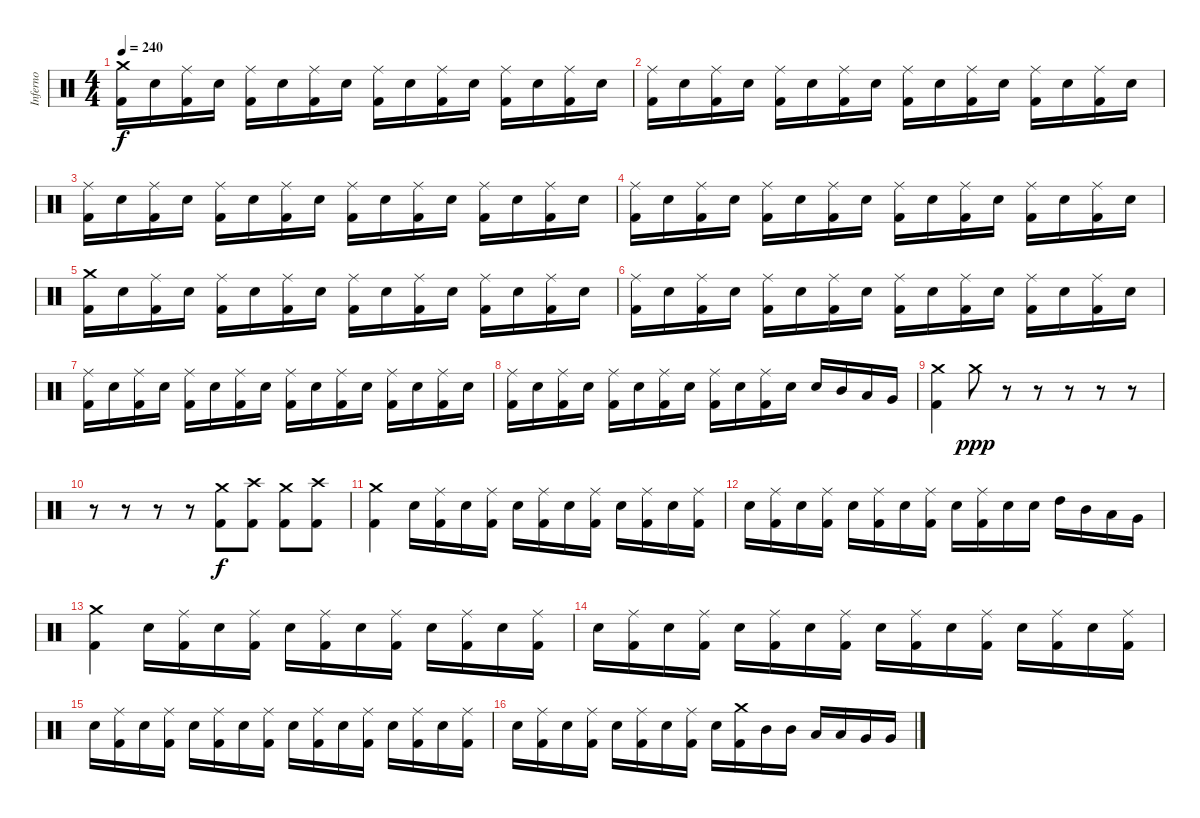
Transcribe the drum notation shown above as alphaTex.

\track ("Inferno" "Inferno") {instrument percussion}
\staff {score}
\articulation defaults
\ts (4 4)
\tempo 240
\clef neutral
\ks c
("Crash medium (hit)" "Kick (hit) 2").16{dy f} "Snare (hit) 2".16 ("Ride (middle)" "Kick (hit) 2").16 "Snare (hit) 2".16 ("Ride (middle)" "Kick (hit) 2").16 "Snare (hit) 2".16 ("Ride (middle)" "Kick (hit) 2").16 "Snare (hit) 2".16 ("Ride (middle)" "Kick (hit) 2").16 "Snare (hit) 2".16 ("Ride (middle)" "Kick (hit) 2").16 "Snare (hit) 2".16 ("Ride (middle)" "Kick (hit) 2").16 "Snare (hit) 2".16 ("Ride (middle)" "Kick (hit) 2").16 "Snare (hit) 2".16 |
("Ride (middle)" "Kick (hit) 2").16 "Snare (hit) 2".16 ("Ride (middle)" "Kick (hit) 2").16 "Snare (hit) 2".16 ("Ride (middle)" "Kick (hit) 2").16 "Snare (hit) 2".16 ("Ride (middle)" "Kick (hit) 2").16 "Snare (hit) 2".16 ("Ride (middle)" "Kick (hit) 2").16 "Snare (hit) 2".16 ("Ride (middle)" "Kick (hit) 2").16 "Snare (hit) 2".16 ("Ride (middle)" "Kick (hit) 2").16 "Snare (hit) 2".16 ("Ride (middle)" "Kick (hit) 2").16 "Snare (hit) 2".16 |
("Ride (middle)" "Kick (hit) 2").16 "Snare (hit) 2".16 ("Ride (middle)" "Kick (hit) 2").16 "Snare (hit) 2".16 ("Ride (middle)" "Kick (hit) 2").16 "Snare (hit) 2".16 ("Ride (middle)" "Kick (hit) 2").16 "Snare (hit) 2".16 ("Ride (middle)" "Kick (hit) 2").16 "Snare (hit) 2".16 ("Ride (middle)" "Kick (hit) 2").16 "Snare (hit) 2".16 ("Ride (middle)" "Kick (hit) 2").16 "Snare (hit) 2".16 ("Ride (middle)" "Kick (hit) 2").16 "Snare (hit) 2".16 |
("Ride (middle)" "Kick (hit) 2").16 "Snare (hit) 2".16 ("Ride (middle)" "Kick (hit) 2").16 "Snare (hit) 2".16 ("Ride (middle)" "Kick (hit) 2").16 "Snare (hit) 2".16 ("Ride (middle)" "Kick (hit) 2").16 "Snare (hit) 2".16 ("Ride (middle)" "Kick (hit) 2").16 "Snare (hit) 2".16 ("Ride (middle)" "Kick (hit) 2").16 "Snare (hit) 2".16 ("Ride (middle)" "Kick (hit) 2").16 "Snare (hit) 2".16 ("Ride (middle)" "Kick (hit) 2").16 "Snare (hit) 2".16 |
("Crash medium (hit)" "Kick (hit) 2").16 "Snare (hit) 2".16 ("Ride (middle)" "Kick (hit) 2").16 "Snare (hit) 2".16 ("Ride (middle)" "Kick (hit) 2").16 "Snare (hit) 2".16 ("Ride (middle)" "Kick (hit) 2").16 "Snare (hit) 2".16 ("Ride (middle)" "Kick (hit) 2").16 "Snare (hit) 2".16 ("Ride (middle)" "Kick (hit) 2").16 "Snare (hit) 2".16 ("Ride (middle)" "Kick (hit) 2").16 "Snare (hit) 2".16 ("Ride (middle)" "Kick (hit) 2").16 "Snare (hit) 2".16 |
("Ride (middle)" "Kick (hit) 2").16 "Snare (hit) 2".16 ("Ride (middle)" "Kick (hit) 2").16 "Snare (hit) 2".16 ("Ride (middle)" "Kick (hit) 2").16 "Snare (hit) 2".16 ("Ride (middle)" "Kick (hit) 2").16 "Snare (hit) 2".16 ("Ride (middle)" "Kick (hit) 2").16 "Snare (hit) 2".16 ("Ride (middle)" "Kick (hit) 2").16 "Snare (hit) 2".16 ("Ride (middle)" "Kick (hit) 2").16 "Snare (hit) 2".16 ("Ride (middle)" "Kick (hit) 2").16 "Snare (hit) 2".16 |
("Ride (middle)" "Kick (hit) 2").16 "Snare (hit) 2".16 ("Ride (middle)" "Kick (hit) 2").16 "Snare (hit) 2".16 ("Ride (middle)" "Kick (hit) 2").16 "Snare (hit) 2".16 ("Ride (middle)" "Kick (hit) 2").16 "Snare (hit) 2".16 ("Ride (middle)" "Kick (hit) 2").16 "Snare (hit) 2".16 ("Ride (middle)" "Kick (hit) 2").16 "Snare (hit) 2".16 ("Ride (middle)" "Kick (hit) 2").16 "Snare (hit) 2".16 ("Ride (middle)" "Kick (hit) 2").16 "Snare (hit) 2".16 |
("Ride (middle)" "Kick (hit) 2").16 "Snare (hit) 2".16 ("Ride (middle)" "Kick (hit) 2").16 "Snare (hit) 2".16 ("Ride (middle)" "Kick (hit) 2").16 "Snare (hit) 2".16 ("Ride (middle)" "Kick (hit) 2").16 "Snare (hit) 2".16 ("Ride (middle)" "Kick (hit) 2").16 "Snare (hit) 2".16 ("Ride (middle)" "Kick (hit) 2").16 "Snare (hit) 2".16 "Snare (hit) 2".16 "Mid Tom (hit)".16 "Low Tom (hit)".16 "Very Low Tom (hit)".16 |
("Crash medium (hit)" "Kick (hit) 2").4 "Crash medium (hit)".8{dy ppp} r.8 r.8 r.8 r.8 r.8 |
r.8 r.8 r.8 r.8 ("Crash medium (hit)" "Kick (hit) 2").8{dy f} ("Crash high (hit)" "Kick (hit) 2").8 ("Crash medium (hit)" "Kick (hit) 2").8 ("Crash high (hit)" "Kick (hit) 2").8 |
("Crash medium (hit)" "Kick (hit) 2").4 "Snare (hit) 2".16 ("Ride (middle)" "Kick (hit) 2").16 "Snare (hit) 2".16 ("Ride (middle)" "Kick (hit) 2").16 "Snare (hit) 2".16 ("Ride (middle)" "Kick (hit) 2").16 "Snare (hit) 2".16 ("Ride (middle)" "Kick (hit) 2").16 "Snare (hit) 2".16 ("Ride (middle)" "Kick (hit) 2").16 "Snare (hit) 2".16 ("Ride (middle)" "Kick (hit) 2").16 |
"Snare (hit) 2".16 ("Ride (middle)" "Kick (hit) 2").16 "Snare (hit) 2".16 ("Ride (middle)" "Kick (hit) 2").16 "Snare (hit) 2".16 ("Ride (middle)" "Kick (hit) 2").16 "Snare (hit) 2".16 ("Ride (middle)" "Kick (hit) 2").16 "Snare (hit) 2".16 ("Ride (middle)" "Kick (hit) 2").16 "Snare (hit) 2".16 "Snare (hit) 2".16 "High Tom (hit)".16 "Mid Tom (hit)".16 "Low Tom (hit)".16 "Very Low Tom (hit)".16 |
("Crash medium (hit)" "Kick (hit) 2").4 "Snare (hit) 2".16 ("Ride (middle)" "Kick (hit) 2").16 "Snare (hit) 2".16 ("Ride (middle)" "Kick (hit) 2").16 "Snare (hit) 2".16 ("Ride (middle)" "Kick (hit) 2").16 "Snare (hit) 2".16 ("Ride (middle)" "Kick (hit) 2").16 "Snare (hit) 2".16 ("Ride (middle)" "Kick (hit) 2").16 "Snare (hit) 2".16 ("Ride (middle)" "Kick (hit) 2").16 |
"Snare (hit) 2".16 ("Ride (middle)" "Kick (hit) 2").16 "Snare (hit) 2".16 ("Ride (middle)" "Kick (hit) 2").16 "Snare (hit) 2".16 ("Ride (middle)" "Kick (hit) 2").16 "Snare (hit) 2".16 ("Ride (middle)" "Kick (hit) 2").16 "Snare (hit) 2".16 ("Ride (middle)" "Kick (hit) 2").16 "Snare (hit) 2".16 ("Ride (middle)" "Kick (hit) 2").16 "Snare (hit) 2".16 ("Ride (middle)" "Kick (hit) 2").16 "Snare (hit) 2".16 ("Ride (middle)" "Kick (hit) 2").16 |
"Snare (hit) 2".16 ("Ride (middle)" "Kick (hit) 2").16 "Snare (hit) 2".16 ("Ride (middle)" "Kick (hit) 2").16 "Snare (hit) 2".16 ("Ride (middle)" "Kick (hit) 2").16 "Snare (hit) 2".16 ("Ride (middle)" "Kick (hit) 2").16 "Snare (hit) 2".16 ("Ride (middle)" "Kick (hit) 2").16 "Snare (hit) 2".16 ("Ride (middle)" "Kick (hit) 2").16 "Snare (hit) 2".16 ("Ride (middle)" "Kick (hit) 2").16 "Snare (hit) 2".16 ("Ride (middle)" "Kick (hit) 2").16 |
"Snare (hit) 2".16 ("Ride (middle)" "Kick (hit) 2").16 "Snare (hit) 2".16 ("Ride (middle)" "Kick (hit) 2").16 "Snare (hit) 2".16 ("Ride (middle)" "Kick (hit) 2").16 "Snare (hit) 2".16 ("Ride (middle)" "Kick (hit) 2").16 "Snare (hit) 2".16 ("Crash medium (hit)" "Kick (hit) 2").16 "Mid Tom (hit)".16 "Mid Tom (hit)".16 "Low Tom (hit)".16 "Low Tom (hit)".16 "Very Low Tom (hit)".16 "Very Low Tom (hit)".16
